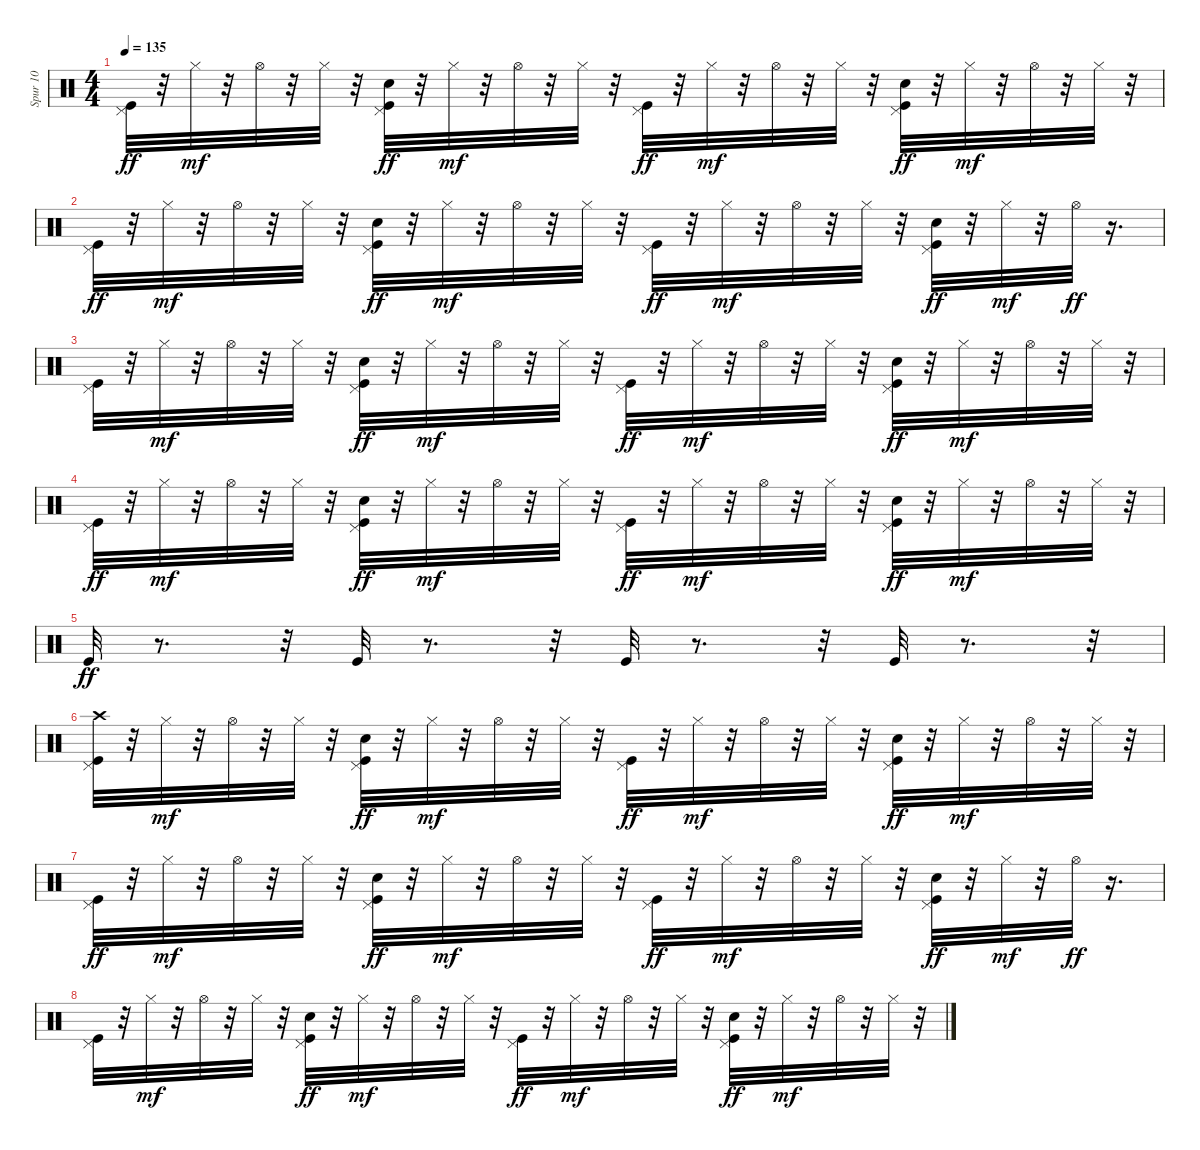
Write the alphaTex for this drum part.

\track ("Spur 10" "Spur 10") {instrument percussion}
\staff {score}
\articulation defaults
\ts (4 4)
\tempo 135
\clef neutral
\ks c
("Kick (hit)" "Pedal Hi-Hat (hit)").32{dy ff} r.32 "Hi-Hat (closed)".32{dy mf} r.32 "Hi-Hat (open)".32 r.32 "Hi-Hat (closed)".32 r.32 ("Kick (hit)" "Hand Clap (hit)" "Pedal Hi-Hat (hit)").32{dy ff} r.32 "Hi-Hat (closed)".32{dy mf} r.32 "Hi-Hat (open)".32 r.32 "Hi-Hat (closed)".32 r.32 ("Kick (hit)" "Pedal Hi-Hat (hit)").32{dy ff} r.32 "Hi-Hat (closed)".32{dy mf} r.32 "Hi-Hat (open)".32 r.32 "Hi-Hat (closed)".32 r.32 ("Kick (hit)" "Hand Clap (hit)" "Pedal Hi-Hat (hit)").32{dy ff} r.32 "Hi-Hat (closed)".32{dy mf} r.32 "Hi-Hat (open)".32 r.32 "Hi-Hat (closed)".32 r.32 |
("Kick (hit)" "Pedal Hi-Hat (hit)").32{dy ff} r.32 "Hi-Hat (closed)".32{dy mf} r.32 "Hi-Hat (open)".32 r.32 "Hi-Hat (closed)".32 r.32 ("Kick (hit)" "Hand Clap (hit)" "Pedal Hi-Hat (hit)").32{dy ff} r.32 "Hi-Hat (closed)".32{dy mf} r.32 "Hi-Hat (open)".32 r.32 "Hi-Hat (closed)".32 r.32 ("Kick (hit)" "Pedal Hi-Hat (hit)").32{dy ff} r.32 "Hi-Hat (closed)".32{dy mf} r.32 "Hi-Hat (open)".32 r.32 "Hi-Hat (closed)".32 r.32 ("Kick (hit)" "Hand Clap (hit)" "Pedal Hi-Hat (hit)").32{dy ff} r.32 "Hi-Hat (closed)".32{dy mf} r.32 "Hi-Hat (open)".32{dy ff} r.16{d} |
("Kick (hit)" "Pedal Hi-Hat (hit)").32 r.32 "Hi-Hat (closed)".32{dy mf} r.32 "Hi-Hat (open)".32 r.32 "Hi-Hat (closed)".32 r.32 ("Kick (hit)" "Hand Clap (hit)" "Pedal Hi-Hat (hit)").32{dy ff} r.32 "Hi-Hat (closed)".32{dy mf} r.32 "Hi-Hat (open)".32 r.32 "Hi-Hat (closed)".32 r.32 ("Kick (hit)" "Pedal Hi-Hat (hit)").32{dy ff} r.32 "Hi-Hat (closed)".32{dy mf} r.32 "Hi-Hat (open)".32 r.32 "Hi-Hat (closed)".32 r.32 ("Kick (hit)" "Hand Clap (hit)" "Pedal Hi-Hat (hit)").32{dy ff} r.32 "Hi-Hat (closed)".32{dy mf} r.32 "Hi-Hat (open)".32 r.32 "Hi-Hat (closed)".32 r.32 |
("Kick (hit)" "Pedal Hi-Hat (hit)").32{dy ff} r.32 "Hi-Hat (closed)".32{dy mf} r.32 "Hi-Hat (open)".32 r.32 "Hi-Hat (closed)".32 r.32 ("Kick (hit)" "Hand Clap (hit)" "Pedal Hi-Hat (hit)").32{dy ff} r.32 "Hi-Hat (closed)".32{dy mf} r.32 "Hi-Hat (open)".32 r.32 "Hi-Hat (closed)".32 r.32 ("Kick (hit)" "Pedal Hi-Hat (hit)").32{dy ff} r.32 "Hi-Hat (closed)".32{dy mf} r.32 "Hi-Hat (open)".32 r.32 "Hi-Hat (closed)".32 r.32 ("Kick (hit)" "Hand Clap (hit)" "Pedal Hi-Hat (hit)").32{dy ff} r.32 "Hi-Hat (closed)".32{dy mf} r.32 "Hi-Hat (open)".32 r.32 "Hi-Hat (closed)".32 r.32 |
"Kick (hit)".32{dy ff} r.8{d} r.32 "Kick (hit)".32 r.8{d} r.32 "Kick (hit)".32 r.8{d} r.32 "Kick (hit)".32 r.8{d} r.32 |
("Crash high (hit)" "Kick (hit)" "Pedal Hi-Hat (hit)").32 r.32 "Hi-Hat (closed)".32{dy mf} r.32 "Hi-Hat (open)".32 r.32 "Hi-Hat (closed)".32 r.32 ("Kick (hit)" "Hand Clap (hit)" "Pedal Hi-Hat (hit)").32{dy ff} r.32 "Hi-Hat (closed)".32{dy mf} r.32 "Hi-Hat (open)".32 r.32 "Hi-Hat (closed)".32 r.32 ("Kick (hit)" "Pedal Hi-Hat (hit)").32{dy ff} r.32 "Hi-Hat (closed)".32{dy mf} r.32 "Hi-Hat (open)".32 r.32 "Hi-Hat (closed)".32 r.32 ("Kick (hit)" "Hand Clap (hit)" "Pedal Hi-Hat (hit)").32{dy ff} r.32 "Hi-Hat (closed)".32{dy mf} r.32 "Hi-Hat (open)".32 r.32 "Hi-Hat (closed)".32 r.32 |
("Kick (hit)" "Pedal Hi-Hat (hit)").32{dy ff} r.32 "Hi-Hat (closed)".32{dy mf} r.32 "Hi-Hat (open)".32 r.32 "Hi-Hat (closed)".32 r.32 ("Kick (hit)" "Hand Clap (hit)" "Pedal Hi-Hat (hit)").32{dy ff} r.32 "Hi-Hat (closed)".32{dy mf} r.32 "Hi-Hat (open)".32 r.32 "Hi-Hat (closed)".32 r.32 ("Kick (hit)" "Pedal Hi-Hat (hit)").32{dy ff} r.32 "Hi-Hat (closed)".32{dy mf} r.32 "Hi-Hat (open)".32 r.32 "Hi-Hat (closed)".32 r.32 ("Kick (hit)" "Hand Clap (hit)" "Pedal Hi-Hat (hit)").32{dy ff} r.32 "Hi-Hat (closed)".32{dy mf} r.32 "Hi-Hat (open)".32{dy ff} r.16{d} |
("Kick (hit)" "Pedal Hi-Hat (hit)").32 r.32 "Hi-Hat (closed)".32{dy mf} r.32 "Hi-Hat (open)".32 r.32 "Hi-Hat (closed)".32 r.32 ("Kick (hit)" "Hand Clap (hit)" "Pedal Hi-Hat (hit)").32{dy ff} r.32 "Hi-Hat (closed)".32{dy mf} r.32 "Hi-Hat (open)".32 r.32 "Hi-Hat (closed)".32 r.32 ("Kick (hit)" "Pedal Hi-Hat (hit)").32{dy ff} r.32 "Hi-Hat (closed)".32{dy mf} r.32 "Hi-Hat (open)".32 r.32 "Hi-Hat (closed)".32 r.32 ("Kick (hit)" "Hand Clap (hit)" "Pedal Hi-Hat (hit)").32{dy ff} r.32 "Hi-Hat (closed)".32{dy mf} r.32 "Hi-Hat (open)".32 r.32 "Hi-Hat (closed)".32 r.32
